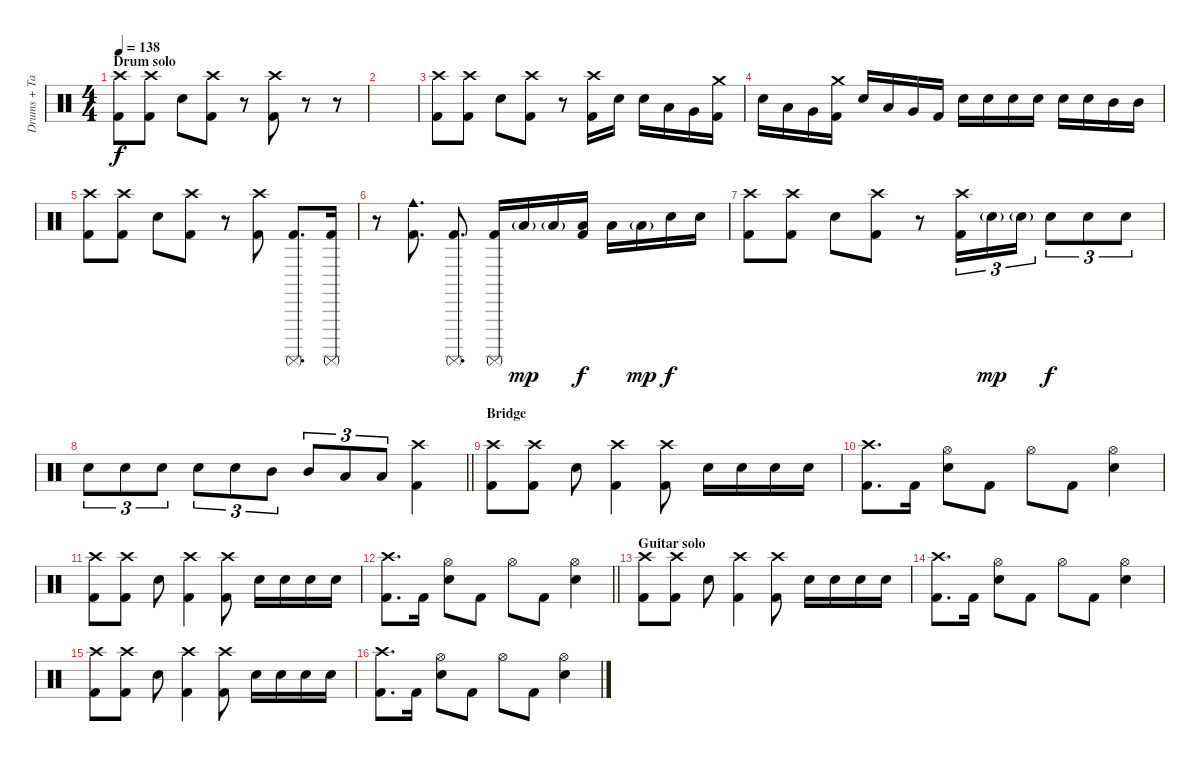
\track ("Drums + Tambourine" "Drums + Ta") {instrument percussion}
\staff {score}
\articulation defaults
\ts (4 4)
\section ("" "Drum solo")
\tempo 138
\clef neutral
\ks c
("Crash high (hit)" "Kick (hit) 2").8{dy f} ("Crash high (hit)" "Kick (hit) 2").8 "Electric Snare (hit)".8 ("Crash high (hit)" "Kick (hit) 2").8 r.8 ("Crash high (hit)" "Kick (hit) 2").8 r.8 r.8 |
|
("Crash high (hit)" "Kick (hit) 2").8 ("Crash high (hit)" "Kick (hit) 2").8 "Electric Snare (hit)".8 ("Crash high (hit)" "Kick (hit) 2").8 r.8 ("Crash high (hit)" "Kick (hit) 2").16 "Electric Snare (hit)".16 "Electric Snare (hit)".16 "Low Tom (hit)".16 "Very Low Tom (hit)".16 ("Crash medium (hit)" "Kick (hit) 2").16 |
"Electric Snare (hit)".16 "Low Tom (hit)".16 "Very Low Tom (hit)".16 ("Crash medium (hit)" "Kick (hit) 2").16 "Electric Snare (hit)".16 "Low Tom (hit)".16 "Very Low Tom (hit)".16 "Kick (hit) 2".16 "Electric Snare (hit)".16 "Electric Snare (hit)".16 "Electric Snare (hit)".16 "Electric Snare (hit)".16 "Electric Snare (hit)".16 "Electric Snare (hit)".16 "Mid Tom (hit)".16 "Mid Tom (hit)".16 |
("Crash high (hit)" "Kick (hit) 2").8 ("Crash high (hit)" "Kick (hit) 2").8 "Electric Snare (hit)".8 ("Crash high (hit)" "Kick (hit) 2").8 r.8 ("Crash high (hit)" "Kick (hit) 2").8 ("Surdo (mute)" "Kick (hit) 2").8{d} ("Surdo (mute)" "Kick (hit) 2").16 |
r.8 ("Cowbell medium (hit)" "Kick (hit) 2").8{d} ("Surdo (mute)" "Kick (hit) 2").8{d} ("Surdo (mute)" "Kick (hit) 2").16 "Low Tom (hit)"{g}.16{dy mp} "Low Tom (hit)"{g}.16 ("Low Tom (hit)" "Kick (hit) 2").16{dy f} "Low Tom (hit)".16 "Low Tom (hit)"{g}.16{dy mp} "Electric Snare (hit)".16{dy f} "Electric Snare (hit)".16 |
("Crash high (hit)" "Kick (hit) 2").8 ("Crash high (hit)" "Kick (hit) 2").8 "Electric Snare (hit)".8 ("Crash high (hit)" "Kick (hit) 2").8 r.8 ("Crash high (hit)" "Kick (hit) 2").16{tu (3 2)} "Electric Snare (hit)"{g}.16{tu (3 2) dy mp} "Electric Snare (hit)"{g}.16{tu (3 2)} "Electric Snare (hit)".8{tu (3 2) dy f} "Electric Snare (hit)".8{tu (3 2)} "Electric Snare (hit)".8{tu (3 2)} |
\barLineRight lightlight "Electric Snare (hit)".8{tu (3 2)} "Electric Snare (hit)".8{tu (3 2)} "Electric Snare (hit)".8{tu (3 2)} "Electric Snare (hit)".8{tu (3 2)} "Electric Snare (hit)".8{tu (3 2)} "Mid Tom (hit)".8{tu (3 2)} "Mid Tom (hit)".8{tu (3 2)} "Low Tom (hit)".8{tu (3 2)} "Low Tom (hit)".8{tu (3 2)}
("Crash high (hit)" "Kick (hit) 2").4 |
\section ("" "Bridge")
("Crash high (hit)" "Kick (hit) 2").8 ("Crash high (hit)" "Kick (hit) 2").8 "Electric Snare (hit)".8 ("Crash high (hit)" "Kick (hit) 2").4 ("Crash high (hit)" "Kick (hit) 2").8 "Electric Snare (hit)".16 "Electric Snare (hit)".16 "Electric Snare (hit)".16 "Electric Snare (hit)".16 |
("Crash high (hit)" "Kick (hit) 2").8{d} "Kick (hit) 2".16 ("Hi-Hat (open)" "Electric Snare (hit)").8 "Kick (hit) 2".8 "Hi-Hat (open)".8 "Kick (hit) 2".8 ("Hi-Hat (open)" "Electric Snare (hit)").4 |
("Crash high (hit)" "Kick (hit) 2").8 ("Crash high (hit)" "Kick (hit) 2").8 "Electric Snare (hit)".8 ("Crash high (hit)" "Kick (hit) 2").4 ("Crash high (hit)" "Kick (hit) 2").8 "Electric Snare (hit)".16 "Electric Snare (hit)".16 "Electric Snare (hit)".16 "Electric Snare (hit)".16 |
\barLineRight lightlight
("Crash high (hit)" "Kick (hit) 2").8{d} "Kick (hit) 2".16 ("Hi-Hat (open)" "Electric Snare (hit)").8 "Kick (hit) 2".8 "Hi-Hat (open)".8 "Kick (hit) 2".8 ("Hi-Hat (open)" "Electric Snare (hit)").4 |
\section ("" "Guitar solo")
("Crash high (hit)" "Kick (hit) 2").8 ("Crash high (hit)" "Kick (hit) 2").8 "Electric Snare (hit)".8 ("Crash high (hit)" "Kick (hit) 2").4 ("Crash high (hit)" "Kick (hit) 2").8 "Electric Snare (hit)".16 "Electric Snare (hit)".16 "Electric Snare (hit)".16 "Electric Snare (hit)".16 |
("Crash high (hit)" "Kick (hit) 2").8{d} "Kick (hit) 2".16 ("Hi-Hat (open)" "Electric Snare (hit)").8 "Kick (hit) 2".8 "Hi-Hat (open)".8 "Kick (hit) 2".8 ("Hi-Hat (open)" "Electric Snare (hit)").4 |
("Crash high (hit)" "Kick (hit) 2").8 ("Crash high (hit)" "Kick (hit) 2").8 "Electric Snare (hit)".8 ("Crash high (hit)" "Kick (hit) 2").4 ("Crash high (hit)" "Kick (hit) 2").8 "Electric Snare (hit)".16 "Electric Snare (hit)".16 "Electric Snare (hit)".16 "Electric Snare (hit)".16 |
("Crash high (hit)" "Kick (hit) 2").8{d} "Kick (hit) 2".16 ("Hi-Hat (open)" "Electric Snare (hit)").8 "Kick (hit) 2".8 "Hi-Hat (open)".8 "Kick (hit) 2".8 ("Hi-Hat (open)" "Electric Snare (hit)").4
